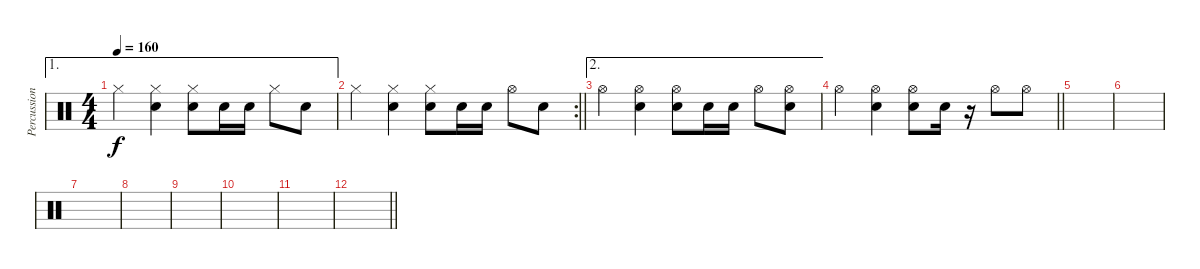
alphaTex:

\track ("Percussion" "Percussion") {instrument percussion}
\staff {score}
\articulation defaults
\ae 1
\ts (4 4)
\tempo 160
\clef neutral
\ks c "Hi-Hat (closed)".4{dy f}
("Hi-Hat (closed)" "Electric Snare (hit)").4 ("Hi-Hat (closed)" "Electric Snare (hit)").8 "Electric Snare (hit)".16 "Electric Snare (hit)".16 "Hi-Hat (closed)".8 "Electric Snare (hit)".8 |
\rc 2
\barLineRight lightlight "Hi-Hat (closed)".4
("Hi-Hat (closed)" "Electric Snare (hit)").4 ("Hi-Hat (closed)" "Electric Snare (hit)").8 "Electric Snare (hit)".16 "Electric Snare (hit)".16 "Hi-Hat (open)".8 "Electric Snare (hit)".8 |
\ae 2 "Hi-Hat (open)".4
("Hi-Hat (open)" "Electric Snare (hit)").4 ("Hi-Hat (open)" "Electric Snare (hit)").8 "Electric Snare (hit)".16 "Electric Snare (hit)".16 "Hi-Hat (open)".8 ("Hi-Hat (open)" "Electric Snare (hit)").8 |
\barLineRight lightlight "Hi-Hat (open)".4
("Hi-Hat (open)" "Electric Snare (hit)").4 ("Hi-Hat (open)" "Electric Snare (hit)").8 "Electric Snare (hit)".16 r.16 "Hi-Hat (open)".8 "Hi-Hat (open)".8 |
|
|
|
|
|
|
|
\barLineRight lightlight
